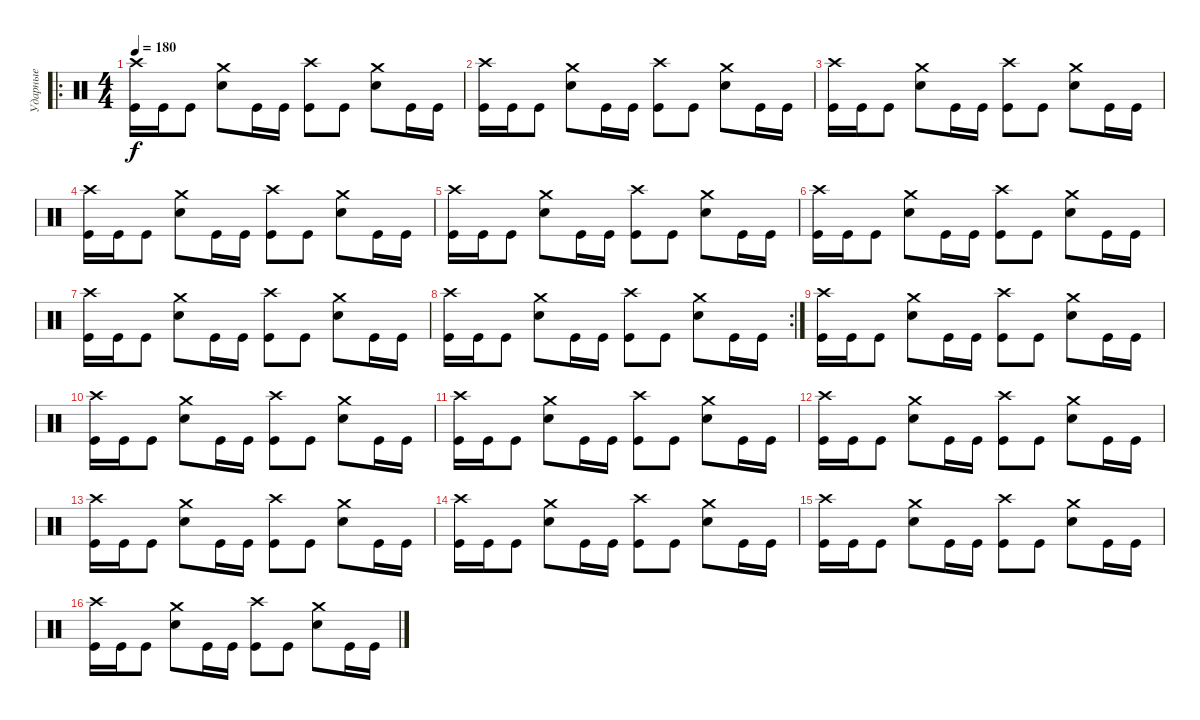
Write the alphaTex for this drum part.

\track ("Ударные" "Ударные") {instrument percussion}
\staff {score}
\articulation defaults
\ro
\ts (4 4)
\tempo 180
\clef neutral
\ks c
("Crash high (hit)" "Kick (hit)").16{dy f} "Kick (hit)".16 "Kick (hit)".8 ("Crash medium (hit)" "Snare (hit) 2").8 "Kick (hit)".16 "Kick (hit)".16 ("Crash high (hit)" "Kick (hit)").8 "Kick (hit)".8 ("Crash medium (hit)" "Snare (hit) 2").8 "Kick (hit)".16 "Kick (hit)".16 |
("Crash high (hit)" "Kick (hit)").16 "Kick (hit)".16 "Kick (hit)".8 ("Crash medium (hit)" "Snare (hit) 2").8 "Kick (hit)".16 "Kick (hit)".16 ("Crash high (hit)" "Kick (hit)").8 "Kick (hit)".8 ("Crash medium (hit)" "Snare (hit) 2").8 "Kick (hit)".16 "Kick (hit)".16 |
("Crash high (hit)" "Kick (hit)").16 "Kick (hit)".16 "Kick (hit)".8 ("Crash medium (hit)" "Snare (hit) 2").8 "Kick (hit)".16 "Kick (hit)".16 ("Crash high (hit)" "Kick (hit)").8 "Kick (hit)".8 ("Crash medium (hit)" "Snare (hit) 2").8 "Kick (hit)".16 "Kick (hit)".16 |
("Crash high (hit)" "Kick (hit)").16 "Kick (hit)".16 "Kick (hit)".8 ("Crash medium (hit)" "Snare (hit) 2").8 "Kick (hit)".16 "Kick (hit)".16 ("Crash high (hit)" "Kick (hit)").8 "Kick (hit)".8 ("Crash medium (hit)" "Snare (hit) 2").8 "Kick (hit)".16 "Kick (hit)".16 |
("Crash high (hit)" "Kick (hit)").16 "Kick (hit)".16 "Kick (hit)".8 ("Crash medium (hit)" "Snare (hit) 2").8 "Kick (hit)".16 "Kick (hit)".16 ("Crash high (hit)" "Kick (hit)").8 "Kick (hit)".8 ("Crash medium (hit)" "Snare (hit) 2").8 "Kick (hit)".16 "Kick (hit)".16 |
("Crash high (hit)" "Kick (hit)").16 "Kick (hit)".16 "Kick (hit)".8 ("Crash medium (hit)" "Snare (hit) 2").8 "Kick (hit)".16 "Kick (hit)".16 ("Crash high (hit)" "Kick (hit)").8 "Kick (hit)".8 ("Crash medium (hit)" "Snare (hit) 2").8 "Kick (hit)".16 "Kick (hit)".16 |
("Crash high (hit)" "Kick (hit)").16 "Kick (hit)".16 "Kick (hit)".8 ("Crash medium (hit)" "Snare (hit) 2").8 "Kick (hit)".16 "Kick (hit)".16 ("Crash high (hit)" "Kick (hit)").8 "Kick (hit)".8 ("Crash medium (hit)" "Snare (hit) 2").8 "Kick (hit)".16 "Kick (hit)".16 |
\rc 2
("Crash high (hit)" "Kick (hit)").16 "Kick (hit)".16 "Kick (hit)".8 ("Crash medium (hit)" "Snare (hit) 2").8 "Kick (hit)".16 "Kick (hit)".16 ("Crash high (hit)" "Kick (hit)").8 "Kick (hit)".8 ("Crash medium (hit)" "Snare (hit) 2").8 "Kick (hit)".16 "Kick (hit)".16 |
("Crash high (hit)" "Kick (hit)").16 "Kick (hit)".16 "Kick (hit)".8 ("Crash medium (hit)" "Snare (hit) 2").8 "Kick (hit)".16 "Kick (hit)".16 ("Crash high (hit)" "Kick (hit)").8 "Kick (hit)".8 ("Crash medium (hit)" "Snare (hit) 2").8 "Kick (hit)".16 "Kick (hit)".16 |
("Crash high (hit)" "Kick (hit)").16 "Kick (hit)".16 "Kick (hit)".8 ("Crash medium (hit)" "Snare (hit) 2").8 "Kick (hit)".16 "Kick (hit)".16 ("Crash high (hit)" "Kick (hit)").8 "Kick (hit)".8 ("Crash medium (hit)" "Snare (hit) 2").8 "Kick (hit)".16 "Kick (hit)".16 |
("Crash high (hit)" "Kick (hit)").16 "Kick (hit)".16 "Kick (hit)".8 ("Crash medium (hit)" "Snare (hit) 2").8 "Kick (hit)".16 "Kick (hit)".16 ("Crash high (hit)" "Kick (hit)").8 "Kick (hit)".8 ("Crash medium (hit)" "Snare (hit) 2").8 "Kick (hit)".16 "Kick (hit)".16 |
("Crash high (hit)" "Kick (hit)").16 "Kick (hit)".16 "Kick (hit)".8 ("Crash medium (hit)" "Snare (hit) 2").8 "Kick (hit)".16 "Kick (hit)".16 ("Crash high (hit)" "Kick (hit)").8 "Kick (hit)".8 ("Crash medium (hit)" "Snare (hit) 2").8 "Kick (hit)".16 "Kick (hit)".16 |
("Crash high (hit)" "Kick (hit)").16 "Kick (hit)".16 "Kick (hit)".8 ("Crash medium (hit)" "Snare (hit) 2").8 "Kick (hit)".16 "Kick (hit)".16 ("Crash high (hit)" "Kick (hit)").8 "Kick (hit)".8 ("Crash medium (hit)" "Snare (hit) 2").8 "Kick (hit)".16 "Kick (hit)".16 |
("Crash high (hit)" "Kick (hit)").16 "Kick (hit)".16 "Kick (hit)".8 ("Crash medium (hit)" "Snare (hit) 2").8 "Kick (hit)".16 "Kick (hit)".16 ("Crash high (hit)" "Kick (hit)").8 "Kick (hit)".8 ("Crash medium (hit)" "Snare (hit) 2").8 "Kick (hit)".16 "Kick (hit)".16 |
("Crash high (hit)" "Kick (hit)").16 "Kick (hit)".16 "Kick (hit)".8 ("Crash medium (hit)" "Snare (hit) 2").8 "Kick (hit)".16 "Kick (hit)".16 ("Crash high (hit)" "Kick (hit)").8 "Kick (hit)".8 ("Crash medium (hit)" "Snare (hit) 2").8 "Kick (hit)".16 "Kick (hit)".16 |
("Crash high (hit)" "Kick (hit)").16 "Kick (hit)".16 "Kick (hit)".8 ("Crash medium (hit)" "Snare (hit) 2").8 "Kick (hit)".16 "Kick (hit)".16 ("Crash high (hit)" "Kick (hit)").8 "Kick (hit)".8 ("Crash medium (hit)" "Snare (hit) 2").8 "Kick (hit)".16 "Kick (hit)".16
